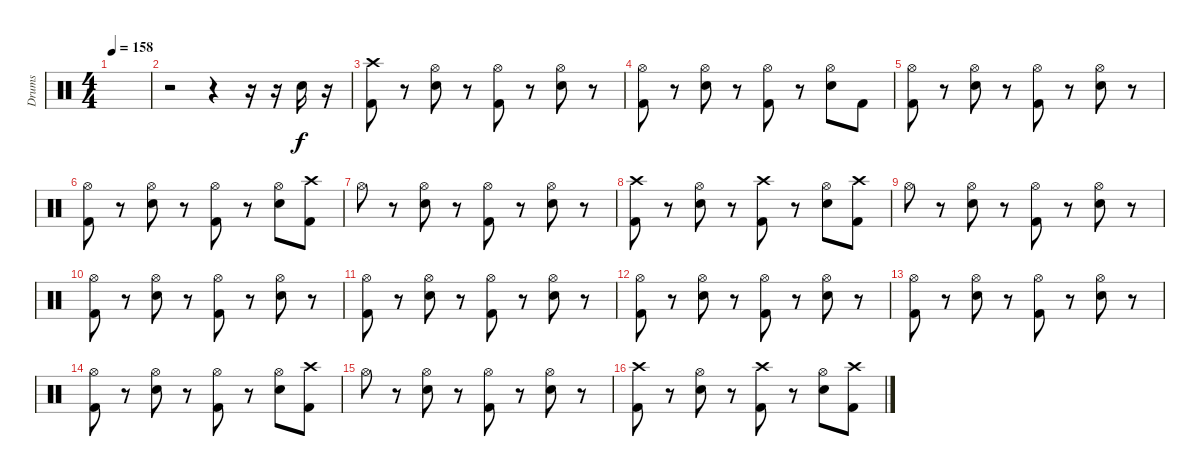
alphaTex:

\track ("Drums" "Drums") {instrument percussion}
\staff {score}
\articulation defaults
\ts (4 4)
\tempo 158
\clef neutral
\ks c
|
r.2 r.4 r.16 r.16 "Snare (hit) 2".16 r.16 |
("Crash high (hit)" "Kick (hit) 2").8 r.8 ("Hi-Hat (open)" "Snare (hit) 2").8 r.8 ("Hi-Hat (open)" "Kick (hit) 2").8 r.8 ("Hi-Hat (open)" "Snare (hit) 2").8 r.8 |
("Hi-Hat (open)" "Kick (hit) 2").8 r.8 ("Hi-Hat (open)" "Snare (hit) 2").8 r.8 ("Hi-Hat (open)" "Kick (hit) 2").8 r.8 ("Hi-Hat (open)" "Snare (hit) 2").8 "Kick (hit) 2".8 |
("Hi-Hat (open)" "Kick (hit) 2").8 r.8 ("Hi-Hat (open)" "Snare (hit) 2").8 r.8 ("Hi-Hat (open)" "Kick (hit) 2").8 r.8 ("Hi-Hat (open)" "Snare (hit) 2").8 r.8 |
("Hi-Hat (open)" "Kick (hit) 2").8 r.8 ("Hi-Hat (open)" "Snare (hit) 2").8 r.8 ("Hi-Hat (open)" "Kick (hit) 2").8 r.8 ("Hi-Hat (open)" "Snare (hit) 2").8 ("Crash high (hit)" "Kick (hit) 2").8 |
"Hi-Hat (open)".8 r.8 ("Hi-Hat (open)" "Snare (hit) 2").8 r.8 ("Hi-Hat (open)" "Kick (hit) 2").8 r.8 ("Hi-Hat (open)" "Snare (hit) 2").8 r.8 |
("Crash high (hit)" "Kick (hit) 2").8 r.8 ("Hi-Hat (open)" "Snare (hit) 2").8 r.8 ("Crash high (hit)" "Kick (hit) 2").8 r.8 ("Hi-Hat (open)" "Snare (hit) 2").8 ("Crash high (hit)" "Kick (hit) 2").8 |
"Hi-Hat (open)".8 r.8 ("Hi-Hat (open)" "Snare (hit) 2").8 r.8 ("Hi-Hat (open)" "Kick (hit) 2").8 r.8 ("Hi-Hat (open)" "Snare (hit) 2").8 r.8 |
("Hi-Hat (open)" "Kick (hit) 2").8 r.8 ("Hi-Hat (open)" "Snare (hit) 2").8 r.8 ("Hi-Hat (open)" "Kick (hit) 2").8 r.8 ("Hi-Hat (open)" "Snare (hit) 2").8 r.8 |
("Hi-Hat (open)" "Kick (hit) 2").8 r.8 ("Hi-Hat (open)" "Snare (hit) 2").8 r.8 ("Hi-Hat (open)" "Kick (hit) 2").8 r.8 ("Hi-Hat (open)" "Snare (hit) 2").8 r.8 |
("Hi-Hat (open)" "Kick (hit) 2").8 r.8 ("Hi-Hat (open)" "Snare (hit) 2").8 r.8 ("Hi-Hat (open)" "Kick (hit) 2").8 r.8 ("Hi-Hat (open)" "Snare (hit) 2").8 r.8 |
("Hi-Hat (open)" "Kick (hit) 2").8 r.8 ("Hi-Hat (open)" "Snare (hit) 2").8 r.8 ("Hi-Hat (open)" "Kick (hit) 2").8 r.8 ("Hi-Hat (open)" "Snare (hit) 2").8 r.8 |
("Hi-Hat (open)" "Kick (hit) 2").8 r.8 ("Hi-Hat (open)" "Snare (hit) 2").8 r.8 ("Hi-Hat (open)" "Kick (hit) 2").8 r.8 ("Hi-Hat (open)" "Snare (hit) 2").8 ("Crash high (hit)" "Kick (hit) 2").8 |
"Hi-Hat (open)".8 r.8 ("Hi-Hat (open)" "Snare (hit) 2").8 r.8 ("Hi-Hat (open)" "Kick (hit) 2").8 r.8 ("Hi-Hat (open)" "Snare (hit) 2").8 r.8 |
("Crash high (hit)" "Kick (hit) 2").8 r.8 ("Hi-Hat (open)" "Snare (hit) 2").8 r.8 ("Crash high (hit)" "Kick (hit) 2").8 r.8 ("Hi-Hat (open)" "Snare (hit) 2").8 ("Crash high (hit)" "Kick (hit) 2").8
